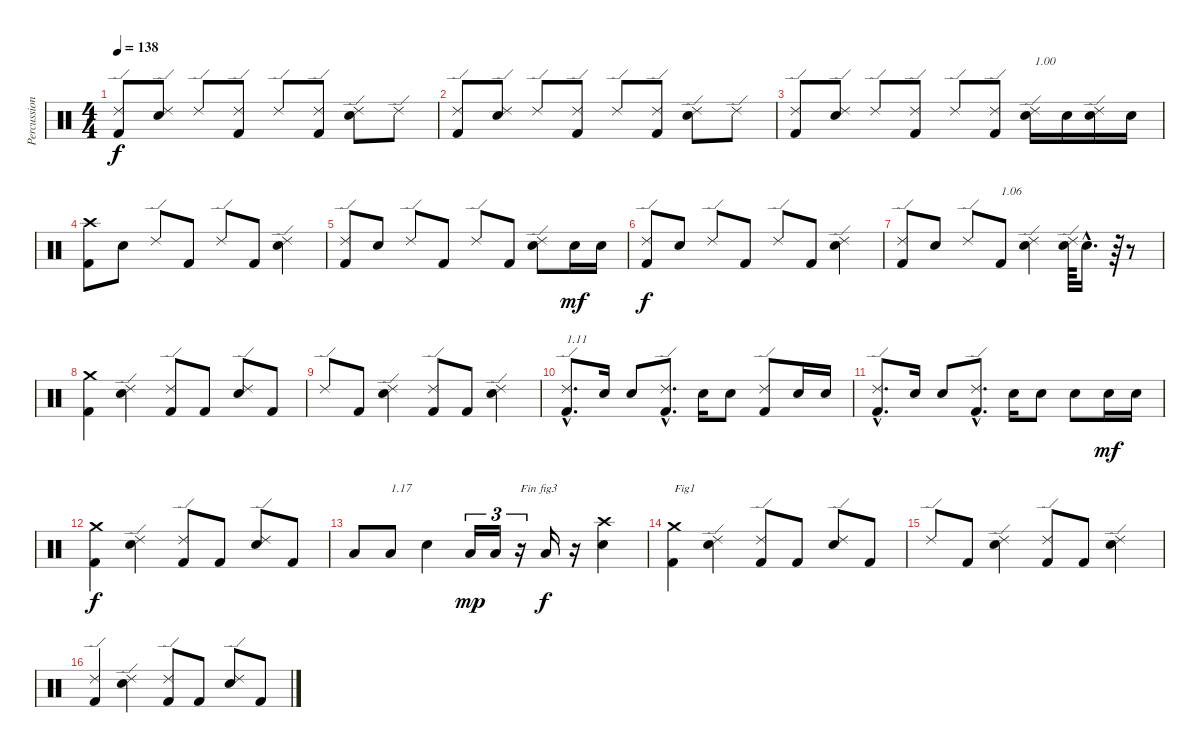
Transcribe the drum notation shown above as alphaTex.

\track ("Percussions" "Percussion") {instrument percussion}
\staff {score}
\articulation defaults
\ts (4 4)
\tempo 138
\clef neutral
\ks c
("Kick (hit) 2" "Ride (edge) 2").8{dy f} ("Electric Snare (hit)" "Ride (edge) 2").8 "Ride (edge) 2".8 ("Kick (hit) 2" "Ride (edge) 2").8 "Ride (edge) 2".8 ("Kick (hit) 2" "Ride (edge) 2").8 ("Electric Snare (hit)" "Ride (edge) 2").8 "Ride (edge) 2".8 |
("Kick (hit) 2" "Ride (edge) 2").8 ("Electric Snare (hit)" "Ride (edge) 2").8 "Ride (edge) 2".8 ("Kick (hit) 2" "Ride (edge) 2").8 "Ride (edge) 2".8 ("Kick (hit) 2" "Ride (edge) 2").8 ("Electric Snare (hit)" "Ride (edge) 2").8 "Ride (edge) 2".8 |
("Kick (hit) 2" "Ride (edge) 2").8 ("Electric Snare (hit)" "Ride (edge) 2").8 "Ride (edge) 2".8 ("Kick (hit) 2" "Ride (edge) 2").8 "Ride (edge) 2".8 ("Kick (hit) 2" "Ride (edge) 2").8 ("Electric Snare (hit)" "Ride (edge) 2").16{txt "1.00"} "Electric Snare (hit)".16 ("Electric Snare (hit)" "Ride (edge) 2").16 "Electric Snare (hit)".16 |
("Kick (hit) 2" "Crash high (hit)").8 "Electric Snare (hit)".8 "Ride (edge) 2".8 "Kick (hit) 2".8 "Ride (edge) 2".8 "Kick (hit) 2".8 ("Electric Snare (hit)" "Ride (edge) 2").4 |
("Kick (hit) 2" "Ride (edge) 2").8 "Electric Snare (hit)".8 "Ride (edge) 2".8 "Kick (hit) 2".8 "Ride (edge) 2".8 "Kick (hit) 2".8 ("Electric Snare (hit)" "Ride (edge) 2").8 "Electric Snare (hit)".16{dy mf} "Electric Snare (hit)".16 |
("Kick (hit) 2" "Ride (edge) 2").8{dy f} "Electric Snare (hit)".8 "Ride (edge) 2".8 "Kick (hit) 2".8 "Ride (edge) 2".8 "Kick (hit) 2".8 ("Electric Snare (hit)" "Ride (edge) 2").4 |
("Kick (hit) 2" "Ride (edge) 2").8 "Electric Snare (hit)".8 "Ride (edge) 2".8 "Kick (hit) 2".8{txt "1.06"} ("Electric Snare (hit)" "Ride (edge) 2").4 ("Electric Snare (hit)" "Ride (edge) 2").64 "Electric Snare (hit)"{hac}.16{d} r.64 r.8 |
("Kick (hit) 2" "Crash medium (hit)").4 ("Electric Snare (hit)" "Ride (edge) 2").4 ("Kick (hit) 2" "Ride (edge) 2").8 "Kick (hit) 2".8 ("Electric Snare (hit)" "Ride (edge) 2").8 "Kick (hit) 2".8 |
"Ride (edge) 2".8 "Kick (hit) 2".8 ("Electric Snare (hit)" "Ride (edge) 2").4 ("Kick (hit) 2" "Ride (edge) 2").8 "Kick (hit) 2".8 ("Electric Snare (hit)" "Ride (edge) 2").4 |
("Kick (hit) 2"{hac} "Ride (edge) 2"{hac}).8{d txt "1.11"} "Electric Snare (hit)".16 "Electric Snare (hit)".8 ("Kick (hit) 2"{hac} "Ride (edge) 2"{hac}).8{d} "Electric Snare (hit)".16 "Electric Snare (hit)".8 ("Kick (hit) 2" "Ride (edge) 2").8 "Electric Snare (hit)".16 "Electric Snare (hit)".16 |
("Kick (hit) 2"{hac} "Ride (edge) 2"{hac}).8{d} "Electric Snare (hit)".16 "Electric Snare (hit)".8 ("Kick (hit) 2"{hac} "Ride (edge) 2"{hac}).8{d} "Electric Snare (hit)".16 "Electric Snare (hit)".8 "Electric Snare (hit)".8 "Electric Snare (hit)".16{dy mf} "Electric Snare (hit)".16 |
("Kick (hit) 2" "Crash medium (hit)").4{dy f} ("Electric Snare (hit)" "Ride (edge) 2").4 ("Kick (hit) 2" "Ride (edge) 2").8 "Kick (hit) 2".8 ("Electric Snare (hit)" "Ride (edge) 2").8 "Kick (hit) 2".8 |
"Low Floor Tom (hit)".8 "Low Floor Tom (hit)".8{txt "1.17"} "Electric Snare (hit)".4 "Low Floor Tom (hit)".16{tu (3 2) dy mp} "Low Floor Tom (hit)".16{tu (3 2)} r.16{tu (3 2) txt "Fin fig3"} "Low Floor Tom (hit)".16{dy f} r.16 ("Electric Snare (hit)" "Crash high (hit)").4 |
("Kick (hit) 2" "Crash medium (hit)").4{txt "Fig1"} ("Electric Snare (hit)" "Ride (edge) 2").4 ("Kick (hit) 2" "Ride (edge) 2").8 "Kick (hit) 2".8 ("Electric Snare (hit)" "Ride (edge) 2").8 "Kick (hit) 2".8 |
"Ride (edge) 2".8 "Kick (hit) 2".8 ("Electric Snare (hit)" "Ride (edge) 2").4 ("Kick (hit) 2" "Ride (edge) 2").8 "Kick (hit) 2".8 ("Electric Snare (hit)" "Ride (edge) 2").4 |
("Kick (hit) 2" "Ride (edge) 2").4 ("Electric Snare (hit)" "Ride (edge) 2").4 ("Kick (hit) 2" "Ride (edge) 2").8 "Kick (hit) 2".8 ("Electric Snare (hit)" "Ride (edge) 2").8 "Kick (hit) 2".8
